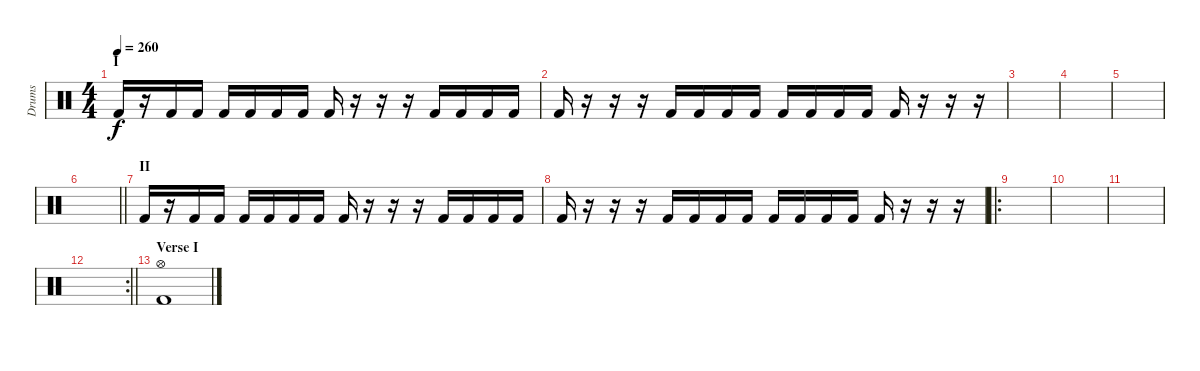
\track ("Drums" "Drums") {instrument percussion}
\staff {score}
\articulation defaults
\ts (4 4)
\section ("" "I")
\tempo 260
\clef neutral
\ks c "Kick (hit) 2".16{dy f}
r.16 "Kick (hit) 2".16 "Kick (hit) 2".16 "Kick (hit) 2".16 "Kick (hit) 2".16 "Kick (hit) 2".16 "Kick (hit) 2".16 "Kick (hit) 2".16 r.16 r.16 r.16 "Kick (hit) 2".16 "Kick (hit) 2".16 "Kick (hit) 2".16 "Kick (hit) 2".16 |
"Kick (hit) 2".16 r.16 r.16 r.16 "Kick (hit) 2".16 "Kick (hit) 2".16 "Kick (hit) 2".16 "Kick (hit) 2".16 "Kick (hit) 2".16 "Kick (hit) 2".16 "Kick (hit) 2".16 "Kick (hit) 2".16 "Kick (hit) 2".16 r.16 r.16 r.16 |
|
|
|
\barLineRight lightlight
|
\section ("" "II")
"Kick (hit) 2".16 r.16 "Kick (hit) 2".16 "Kick (hit) 2".16 "Kick (hit) 2".16 "Kick (hit) 2".16 "Kick (hit) 2".16 "Kick (hit) 2".16 "Kick (hit) 2".16 r.16 r.16 r.16 "Kick (hit) 2".16 "Kick (hit) 2".16 "Kick (hit) 2".16 "Kick (hit) 2".16 |
"Kick (hit) 2".16 r.16 r.16 r.16 "Kick (hit) 2".16 "Kick (hit) 2".16 "Kick (hit) 2".16 "Kick (hit) 2".16 "Kick (hit) 2".16 "Kick (hit) 2".16 "Kick (hit) 2".16 "Kick (hit) 2".16 "Kick (hit) 2".16 r.16 r.16 r.16 |
\ro
|
|
|
\rc 2
\barLineRight lightlight
|
\section ("" "Verse I")
("Hi-Hat (open)" "Kick (hit) 2").1
